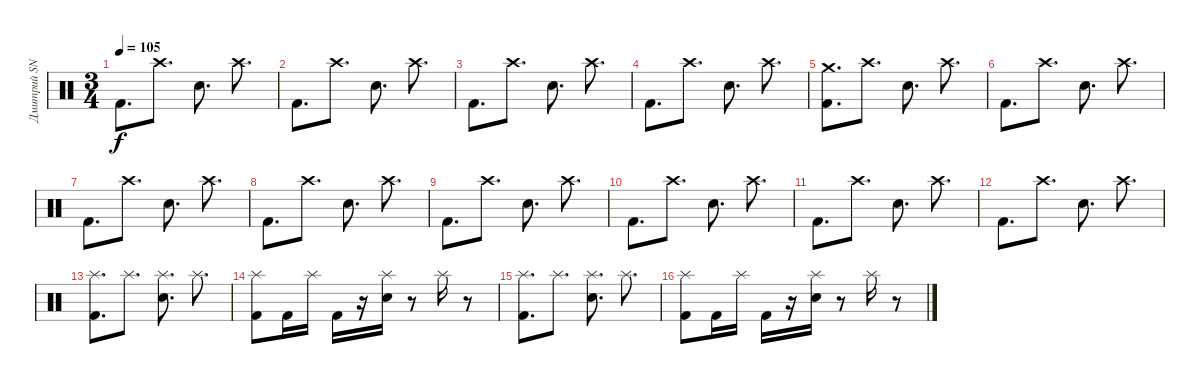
\track ("Дмитрий SNAKE Хакимов" "Дмитрий SN") {instrument percussion}
\staff {score}
\articulation defaults
\ts (3 4)
\tempo 105
\clef neutral
\ks c "Kick (hit) 2".8{d dy f} "Crash high (hit)".8{d} "Snare (hit) 2".8{d} "Crash high (hit)".8{d}
|
"Kick (hit) 2".8{d} "Crash high (hit)".8{d} "Snare (hit) 2".8{d} "Crash high (hit)".8{d} |
"Kick (hit) 2".8{d} "Crash high (hit)".8{d} "Snare (hit) 2".8{d} "Crash high (hit)".8{d} |
"Kick (hit) 2".8{d} "Crash high (hit)".8{d} "Snare (hit) 2".8{d} "Crash high (hit)".8{d} |
("Crash medium (hit)" "Kick (hit) 2").8{d} "Crash high (hit)".8{d} "Snare (hit) 2".8{d} "Crash high (hit)".8{d} |
"Kick (hit) 2".8{d} "Crash high (hit)".8{d} "Snare (hit) 2".8{d} "Crash high (hit)".8{d} |
"Kick (hit) 2".8{d} "Crash high (hit)".8{d} "Snare (hit) 2".8{d} "Crash high (hit)".8{d} |
"Kick (hit) 2".8{d} "Crash high (hit)".8{d} "Snare (hit) 2".8{d} "Crash high (hit)".8{d} |
"Kick (hit) 2".8{d} "Crash high (hit)".8{d} "Snare (hit) 2".8{d} "Crash high (hit)".8{d} |
"Kick (hit) 2".8{d} "Crash high (hit)".8{d} "Snare (hit) 2".8{d} "Crash high (hit)".8{d} |
"Kick (hit) 2".8{d} "Crash high (hit)".8{d} "Snare (hit) 2".8{d} "Crash high (hit)".8{d} |
"Kick (hit) 2".8{d} "Crash high (hit)".8{d} "Snare (hit) 2".8{d} "Crash high (hit)".8{d} |
("Splash (hit)" "Kick (hit) 2").8{d} "Splash (hit)".8{d} ("Splash (hit)" "Snare (hit) 2").8{d} "Splash (hit)".8{d} |
("Splash (hit)" "Kick (hit) 2").8 "Kick (hit) 2".16 "Splash (hit)".16 "Kick (hit) 2".16 r.16 ("Splash (hit)" "Snare (hit) 2").16 r.8 "Splash (hit)".16 r.8 |
("Splash (hit)" "Kick (hit) 2").8{d} "Splash (hit)".8{d} ("Splash (hit)" "Snare (hit) 2").8{d} "Splash (hit)".8{d} |
("Splash (hit)" "Kick (hit) 2").8 "Kick (hit) 2".16 "Splash (hit)".16 "Kick (hit) 2".16 r.16 ("Splash (hit)" "Snare (hit) 2").16 r.8 "Splash (hit)".16 r.8
